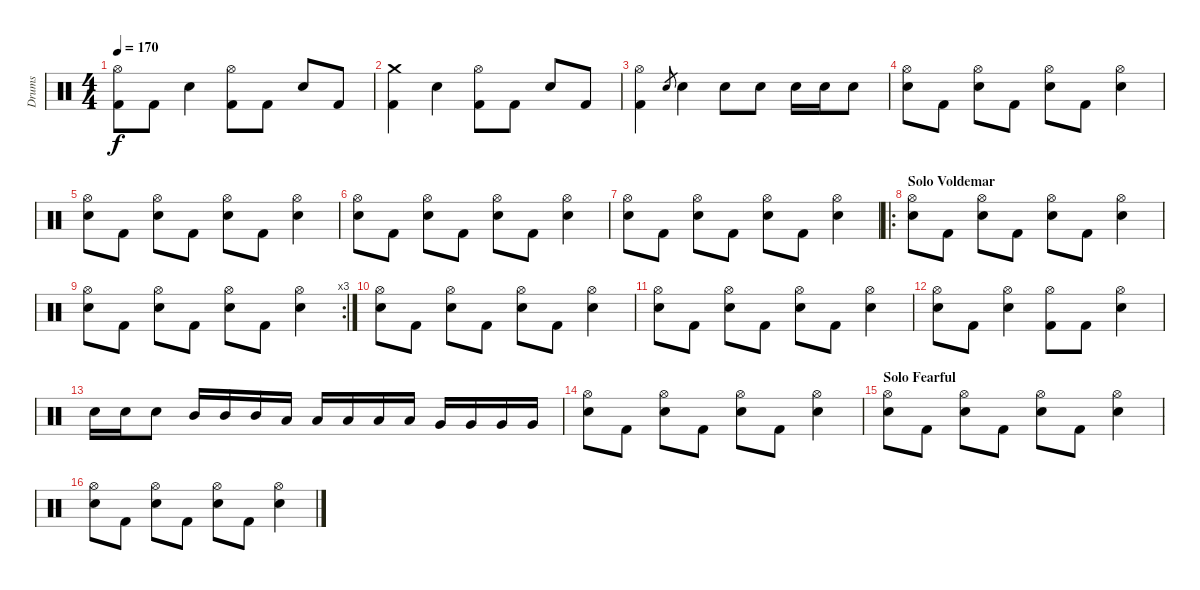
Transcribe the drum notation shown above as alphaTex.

\track ("Drums" "Drums") {instrument percussion}
\staff {score}
\articulation defaults
\ts (4 4)
\tempo 170
\clef neutral
\ks c
("Hi-Hat (open)" "Kick (hit) 2").8{dy f} "Kick (hit) 2".8 "Snare (hit) 2".4 ("Hi-Hat (open)" "Kick (hit) 2").8 "Kick (hit) 2".8 "Snare (hit) 2".8 "Kick (hit) 2".8 |
("Crash medium (hit)" "Kick (hit) 2").4 "Snare (hit) 2".4 ("Hi-Hat (open)" "Kick (hit) 2").8 "Kick (hit) 2".8 "Snare (hit) 2".8 "Kick (hit) 2".8 |
("Hi-Hat (open)" "Kick (hit) 2").4 "Snare (hit) 2".8{gr} "Snare (hit) 2".4 "Snare (hit) 2".8 "Snare (hit) 2".8 "Snare (hit) 2".16 "Snare (hit) 2".16 "Snare (hit) 2".8 |
("Hi-Hat (open)" "Snare (hit) 2").8 "Kick (hit) 2".8 ("Hi-Hat (open)" "Snare (hit) 2").8 "Kick (hit) 2".8 ("Hi-Hat (open)" "Snare (hit) 2").8 "Kick (hit) 2".8 ("Hi-Hat (open)" "Snare (hit) 2").4 |
("Hi-Hat (open)" "Snare (hit) 2").8 "Kick (hit) 2".8 ("Hi-Hat (open)" "Snare (hit) 2").8 "Kick (hit) 2".8 ("Hi-Hat (open)" "Snare (hit) 2").8 "Kick (hit) 2".8 ("Hi-Hat (open)" "Snare (hit) 2").4 |
("Hi-Hat (open)" "Snare (hit) 2").8 "Kick (hit) 2".8 ("Hi-Hat (open)" "Snare (hit) 2").8 "Kick (hit) 2".8 ("Hi-Hat (open)" "Snare (hit) 2").8 "Kick (hit) 2".8 ("Hi-Hat (open)" "Snare (hit) 2").4 |
("Hi-Hat (open)" "Snare (hit) 2").8 "Kick (hit) 2".8 ("Hi-Hat (open)" "Snare (hit) 2").8 "Kick (hit) 2".8 ("Hi-Hat (open)" "Snare (hit) 2").8 "Kick (hit) 2".8 ("Hi-Hat (open)" "Snare (hit) 2").4 |
\ro
\section ("" "Solo Voldemar")
("Hi-Hat (open)" "Snare (hit) 2").8 "Kick (hit) 2".8 ("Hi-Hat (open)" "Snare (hit) 2").8 "Kick (hit) 2".8 ("Hi-Hat (open)" "Snare (hit) 2").8 "Kick (hit) 2".8 ("Hi-Hat (open)" "Snare (hit) 2").4 |
\rc 3
("Hi-Hat (open)" "Snare (hit) 2").8 "Kick (hit) 2".8 ("Hi-Hat (open)" "Snare (hit) 2").8 "Kick (hit) 2".8 ("Hi-Hat (open)" "Snare (hit) 2").8 "Kick (hit) 2".8 ("Hi-Hat (open)" "Snare (hit) 2").4 |
("Hi-Hat (open)" "Snare (hit) 2").8 "Kick (hit) 2".8 ("Hi-Hat (open)" "Snare (hit) 2").8 "Kick (hit) 2".8 ("Hi-Hat (open)" "Snare (hit) 2").8 "Kick (hit) 2".8 ("Hi-Hat (open)" "Snare (hit) 2").4 |
("Hi-Hat (open)" "Snare (hit) 2").8 "Kick (hit) 2".8 ("Hi-Hat (open)" "Snare (hit) 2").8 "Kick (hit) 2".8 ("Hi-Hat (open)" "Snare (hit) 2").8 "Kick (hit) 2".8 ("Hi-Hat (open)" "Snare (hit) 2").4 |
("Hi-Hat (open)" "Snare (hit) 2").8 "Kick (hit) 2".8 ("Hi-Hat (open)" "Snare (hit) 2").4 ("Hi-Hat (open)" "Kick (hit) 2").8 "Kick (hit) 2".8 ("Hi-Hat (open)" "Snare (hit) 2").4 |
"Snare (hit) 2".16 "Snare (hit) 2".16 "Snare (hit) 2".8 "Mid Tom (hit)".16 "Mid Tom (hit)".16 "Mid Tom (hit)".16 "Low Tom (hit)".16 "Low Tom (hit)".16 "Low Tom (hit)".16 "Low Tom (hit)".16 "Low Tom (hit)".16 "Very Low Tom (hit)".16 "Very Low Tom (hit)".16 "Very Low Tom (hit)".16 "Very Low Tom (hit)".16 |
("Hi-Hat (open)" "Snare (hit) 2").8 "Kick (hit) 2".8 ("Hi-Hat (open)" "Snare (hit) 2").8 "Kick (hit) 2".8 ("Hi-Hat (open)" "Snare (hit) 2").8 "Kick (hit) 2".8 ("Hi-Hat (open)" "Snare (hit) 2").4 |
\section ("" "Solo Fearful")
("Hi-Hat (open)" "Snare (hit) 2").8 "Kick (hit) 2".8 ("Hi-Hat (open)" "Snare (hit) 2").8 "Kick (hit) 2".8 ("Hi-Hat (open)" "Snare (hit) 2").8 "Kick (hit) 2".8 ("Hi-Hat (open)" "Snare (hit) 2").4 |
("Hi-Hat (open)" "Snare (hit) 2").8 "Kick (hit) 2".8 ("Hi-Hat (open)" "Snare (hit) 2").8 "Kick (hit) 2".8 ("Hi-Hat (open)" "Snare (hit) 2").8 "Kick (hit) 2".8 ("Hi-Hat (open)" "Snare (hit) 2").4
